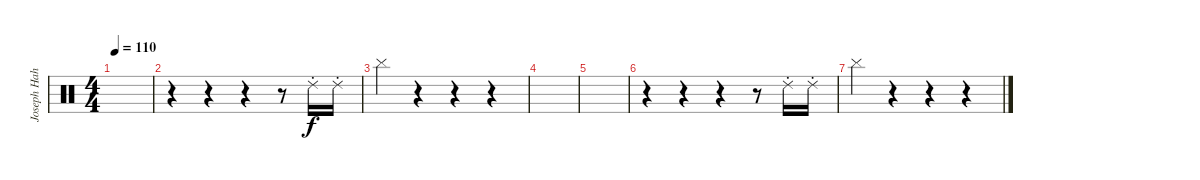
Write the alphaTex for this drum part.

\track ("Joseph Hahn (Turntables)" "Joseph Hah") {instrument percussion}
\staff {score}
\articulation defaults
\ts (4 4)
\tempo 110
\clef neutral
\ks c
|
r.4 r.4 r.4 r.8 "Ride (choke) 2".16 "Ride (choke) 2".16 |
"Cymbal (hit)".4 r.4 r.4 r.4 |
|
|
r.4 r.4 r.4 r.8 "Ride (choke) 2".16 "Ride (choke) 2".16 |
"Cymbal (hit)".4 r.4 r.4 r.4
